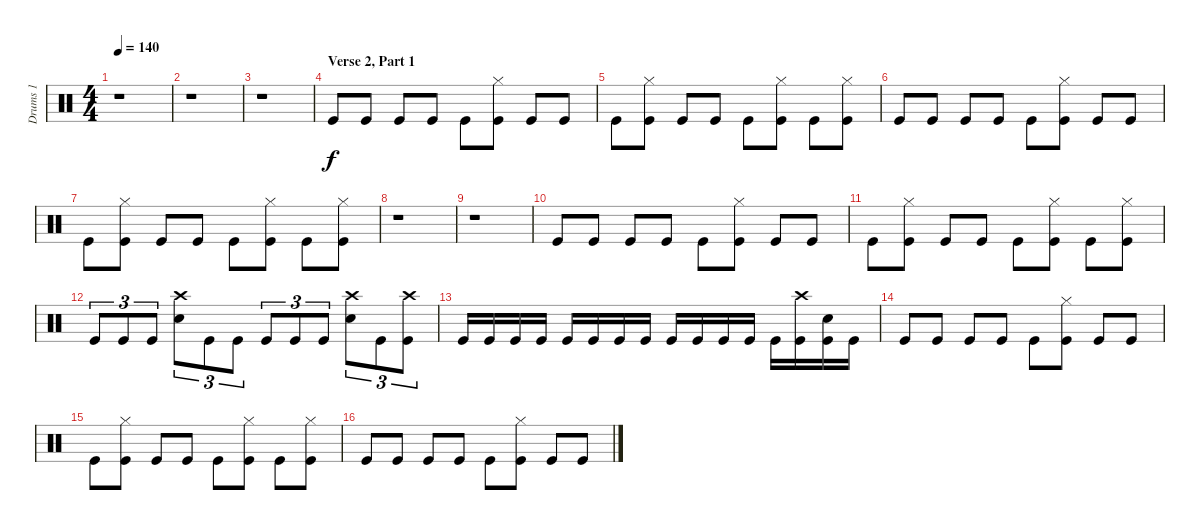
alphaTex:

\track ("Drums 1" "Drums 1") {instrument percussion}
\staff {score}
\articulation defaults
\ts (4 4)
\tempo 140
\clef neutral
\ks c
r.1{dy f} |
r.1 |
r.1 |
\section ("" "Verse 2, Part 1")
"Kick (hit)".8 "Kick (hit)".8 "Kick (hit)".8 "Kick (hit)".8 "Kick (hit)".8 ("Hi-Hat (closed)" "Kick (hit)").8 "Kick (hit)".8 "Kick (hit)".8 |
"Kick (hit)".8 ("Hi-Hat (closed)" "Kick (hit)").8 "Kick (hit)".8 "Kick (hit)".8 "Kick (hit)".8 ("Hi-Hat (closed)" "Kick (hit)").8 "Kick (hit)".8 ("Hi-Hat (closed)" "Kick (hit)").8 |
"Kick (hit)".8 "Kick (hit)".8 "Kick (hit)".8 "Kick (hit)".8 "Kick (hit)".8 ("Hi-Hat (closed)" "Kick (hit)").8 "Kick (hit)".8 "Kick (hit)".8 |
"Kick (hit)".8 ("Hi-Hat (closed)" "Kick (hit)").8 "Kick (hit)".8 "Kick (hit)".8 "Kick (hit)".8 ("Hi-Hat (closed)" "Kick (hit)").8 "Kick (hit)".8 ("Hi-Hat (closed)" "Kick (hit)").8 |
r.1 |
r.1 |
"Kick (hit)".8 "Kick (hit)".8 "Kick (hit)".8 "Kick (hit)".8 "Kick (hit)".8 ("Hi-Hat (closed)" "Kick (hit)").8 "Kick (hit)".8 "Kick (hit)".8 |
"Kick (hit)".8 ("Hi-Hat (closed)" "Kick (hit)").8 "Kick (hit)".8 "Kick (hit)".8 "Kick (hit)".8 ("Hi-Hat (closed)" "Kick (hit)").8 "Kick (hit)".8 ("Hi-Hat (closed)" "Kick (hit)").8 |
"Kick (hit)".8{tu (3 2)} "Kick (hit)".8{tu (3 2)} "Kick (hit)".8{tu (3 2)} ("Crash high (hit)" "Snare (hit) 2").8{tu (3 2)} "Kick (hit)".8{tu (3 2)} "Kick (hit)".8{tu (3 2)} "Kick (hit)".8{tu (3 2)} "Kick (hit)".8{tu (3 2)} "Kick (hit)".8{tu (3 2)} ("Crash high (hit)" "Snare (hit) 2").8{tu (3 2)} "Kick (hit)".8{tu (3 2)} ("Crash high (hit)" "Kick (hit)").8{tu (3 2)} |
"Kick (hit)".16 "Kick (hit)".16 "Kick (hit)".16 "Kick (hit)".16 "Kick (hit)".16 "Kick (hit)".16 "Kick (hit)".16 "Kick (hit)".16 "Kick (hit)".16 "Kick (hit)".16 "Kick (hit)".16 "Kick (hit)".16 "Kick (hit)".16 ("Crash high (hit)" "Kick (hit)").16 ("Snare (hit) 2" "Kick (hit)").16 "Kick (hit)".16 |
"Kick (hit)".8 "Kick (hit)".8 "Kick (hit)".8 "Kick (hit)".8 "Kick (hit)".8 ("Hi-Hat (closed)" "Kick (hit)").8 "Kick (hit)".8 "Kick (hit)".8 |
"Kick (hit)".8 ("Hi-Hat (closed)" "Kick (hit)").8 "Kick (hit)".8 "Kick (hit)".8 "Kick (hit)".8 ("Hi-Hat (closed)" "Kick (hit)").8 "Kick (hit)".8 ("Hi-Hat (closed)" "Kick (hit)").8 |
"Kick (hit)".8 "Kick (hit)".8 "Kick (hit)".8 "Kick (hit)".8 "Kick (hit)".8 ("Hi-Hat (closed)" "Kick (hit)").8 "Kick (hit)".8 "Kick (hit)".8
